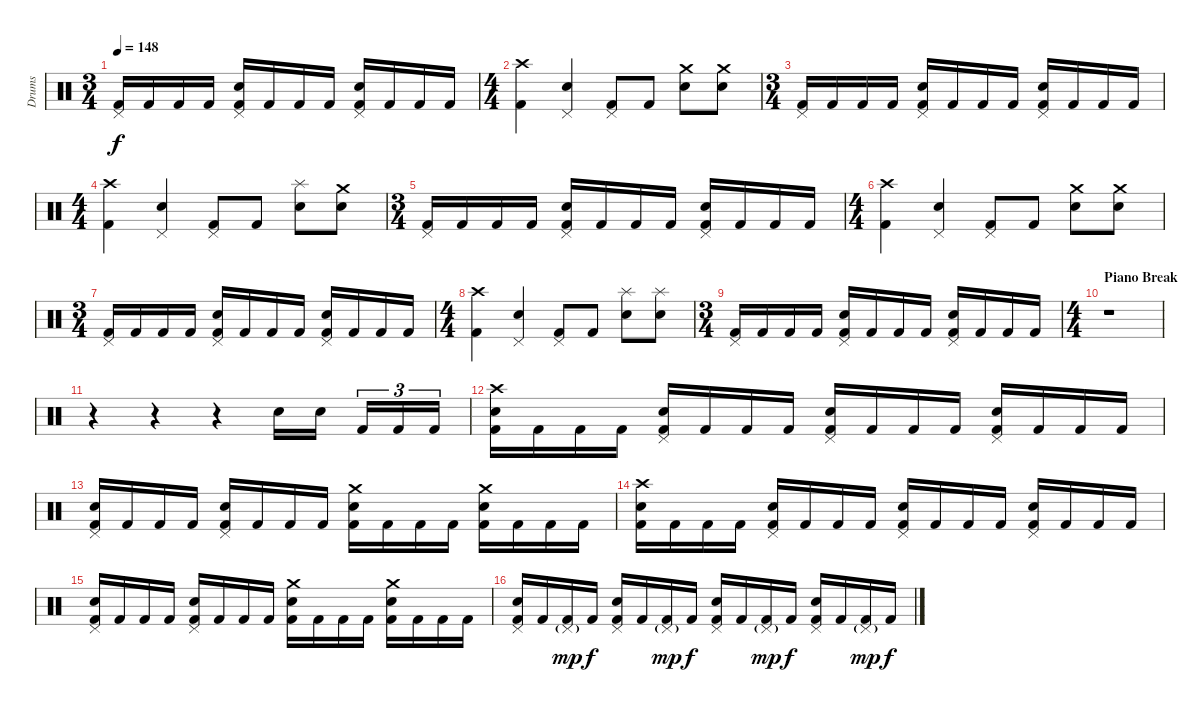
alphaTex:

\track ("Drums" "Drums") {instrument percussion}
\staff {score}
\articulation defaults
\ts (3 4)
\tempo 148
\clef neutral
\ks c
("Pedal Hi-Hat (hit)" "Kick (hit) 2").16{dy f} "Kick (hit) 2".16 "Kick (hit) 2".16 "Kick (hit) 2".16 ("Pedal Hi-Hat (hit)" "Snare (hit) 2" "Kick (hit) 2").16 "Kick (hit) 2".16 "Kick (hit) 2".16 "Kick (hit) 2".16 ("Pedal Hi-Hat (hit)" "Snare (hit) 2" "Kick (hit) 2").16 "Kick (hit) 2".16 "Kick (hit) 2".16 "Kick (hit) 2".16 |
\ts (4 4)
("Crash high (hit)" "Kick (hit) 2").4 ("Pedal Hi-Hat (hit)" "Snare (hit) 2").4 ("Pedal Hi-Hat (hit)" "Kick (hit) 2").8 "Kick (hit) 2".8 ("Crash medium (hit)" "Snare (hit) 2").8 ("Crash medium (hit)" "Snare (hit) 2").8 |
\ts (3 4)
("Pedal Hi-Hat (hit)" "Kick (hit) 2").16 "Kick (hit) 2".16 "Kick (hit) 2".16 "Kick (hit) 2".16 ("Pedal Hi-Hat (hit)" "Snare (hit) 2" "Kick (hit) 2").16 "Kick (hit) 2".16 "Kick (hit) 2".16 "Kick (hit) 2".16 ("Pedal Hi-Hat (hit)" "Snare (hit) 2" "Kick (hit) 2").16 "Kick (hit) 2".16 "Kick (hit) 2".16 "Kick (hit) 2".16 |
\ts (4 4)
("Crash high (hit)" "Kick (hit) 2").4 ("Pedal Hi-Hat (hit)" "Snare (hit) 2").4 ("Pedal Hi-Hat (hit)" "Kick (hit) 2").8 "Kick (hit) 2".8 ("Splash (hit)" "Snare (hit) 2").8 ("Crash medium (hit)" "Snare (hit) 2").8 |
\ts (3 4)
("Pedal Hi-Hat (hit)" "Kick (hit) 2").16 "Kick (hit) 2".16 "Kick (hit) 2".16 "Kick (hit) 2".16 ("Pedal Hi-Hat (hit)" "Snare (hit) 2" "Kick (hit) 2").16 "Kick (hit) 2".16 "Kick (hit) 2".16 "Kick (hit) 2".16 ("Pedal Hi-Hat (hit)" "Snare (hit) 2" "Kick (hit) 2").16 "Kick (hit) 2".16 "Kick (hit) 2".16 "Kick (hit) 2".16 |
\ts (4 4)
("Crash high (hit)" "Kick (hit) 2").4 ("Pedal Hi-Hat (hit)" "Snare (hit) 2").4 ("Pedal Hi-Hat (hit)" "Kick (hit) 2").8 "Kick (hit) 2".8 ("Crash medium (hit)" "Snare (hit) 2").8 ("Crash medium (hit)" "Snare (hit) 2").8 |
\ts (3 4)
("Pedal Hi-Hat (hit)" "Kick (hit) 2").16 "Kick (hit) 2".16 "Kick (hit) 2".16 "Kick (hit) 2".16 ("Pedal Hi-Hat (hit)" "Snare (hit) 2" "Kick (hit) 2").16 "Kick (hit) 2".16 "Kick (hit) 2".16 "Kick (hit) 2".16 ("Pedal Hi-Hat (hit)" "Snare (hit) 2" "Kick (hit) 2").16 "Kick (hit) 2".16 "Kick (hit) 2".16 "Kick (hit) 2".16 |
\ts (4 4)
("Crash high (hit)" "Kick (hit) 2").4 ("Pedal Hi-Hat (hit)" "Snare (hit) 2").4 ("Pedal Hi-Hat (hit)" "Kick (hit) 2").8 "Kick (hit) 2".8 ("Splash (hit)" "Snare (hit) 2").8 ("Splash (hit)" "Snare (hit) 2").8 |
\ts (3 4)
("Pedal Hi-Hat (hit)" "Kick (hit) 2").16 "Kick (hit) 2".16 "Kick (hit) 2".16 "Kick (hit) 2".16 ("Pedal Hi-Hat (hit)" "Snare (hit) 2" "Kick (hit) 2").16 "Kick (hit) 2".16 "Kick (hit) 2".16 "Kick (hit) 2".16 ("Pedal Hi-Hat (hit)" "Snare (hit) 2" "Kick (hit) 2").16 "Kick (hit) 2".16 "Kick (hit) 2".16 "Kick (hit) 2".16 |
\ts (4 4)
\section ("" "Piano Break")
r.1 |
r.4 r.4 r.4 "Snare (hit) 2".16 "Snare (hit) 2".16 "Kick (hit) 2".16{tu (3 2)} "Kick (hit) 2".16{tu (3 2)} "Kick (hit) 2".16{tu (3 2)} |
("Crash high (hit)" "Snare (hit) 2" "Kick (hit) 2").16 "Kick (hit) 2".16 "Kick (hit) 2".16 "Kick (hit) 2".16 ("Pedal Hi-Hat (hit)" "Snare (hit) 2" "Kick (hit) 2").16 "Kick (hit) 2".16 "Kick (hit) 2".16 "Kick (hit) 2".16 ("Pedal Hi-Hat (hit)" "Snare (hit) 2" "Kick (hit) 2").16 "Kick (hit) 2".16 "Kick (hit) 2".16 "Kick (hit) 2".16 ("Pedal Hi-Hat (hit)" "Snare (hit) 2" "Kick (hit) 2").16 "Kick (hit) 2".16 "Kick (hit) 2".16 "Kick (hit) 2".16 |
("Pedal Hi-Hat (hit)" "Snare (hit) 2" "Kick (hit) 2").16 "Kick (hit) 2".16 "Kick (hit) 2".16 "Kick (hit) 2".16 ("Pedal Hi-Hat (hit)" "Snare (hit) 2" "Kick (hit) 2").16 "Kick (hit) 2".16 "Kick (hit) 2".16 "Kick (hit) 2".16 ("Crash medium (hit)" "Snare (hit) 2" "Kick (hit) 2").16 "Kick (hit) 2".16 "Kick (hit) 2".16 "Kick (hit) 2".16 ("Crash medium (hit)" "Snare (hit) 2" "Kick (hit) 2").16 "Kick (hit) 2".16 "Kick (hit) 2".16 "Kick (hit) 2".16 |
("Crash high (hit)" "Snare (hit) 2" "Kick (hit) 2").16 "Kick (hit) 2".16 "Kick (hit) 2".16 "Kick (hit) 2".16 ("Pedal Hi-Hat (hit)" "Snare (hit) 2" "Kick (hit) 2").16 "Kick (hit) 2".16 "Kick (hit) 2".16 "Kick (hit) 2".16 ("Pedal Hi-Hat (hit)" "Snare (hit) 2" "Kick (hit) 2").16 "Kick (hit) 2".16 "Kick (hit) 2".16 "Kick (hit) 2".16 ("Pedal Hi-Hat (hit)" "Snare (hit) 2" "Kick (hit) 2").16 "Kick (hit) 2".16 "Kick (hit) 2".16 "Kick (hit) 2".16 |
("Pedal Hi-Hat (hit)" "Snare (hit) 2" "Kick (hit) 2").16 "Kick (hit) 2".16 "Kick (hit) 2".16 "Kick (hit) 2".16 ("Pedal Hi-Hat (hit)" "Snare (hit) 2" "Kick (hit) 2").16 "Kick (hit) 2".16 "Kick (hit) 2".16 "Kick (hit) 2".16 ("Crash medium (hit)" "Snare (hit) 2" "Kick (hit) 2").16 "Kick (hit) 2".16 "Kick (hit) 2".16 "Kick (hit) 2".16 ("Crash medium (hit)" "Snare (hit) 2" "Kick (hit) 2").16 "Kick (hit) 2".16 "Kick (hit) 2".16 "Kick (hit) 2".16 |
("Pedal Hi-Hat (hit)" "Snare (hit) 2" "Kick (hit) 2").16 "Kick (hit) 2".16 ("Pedal Hi-Hat (hit)"{g} "Kick (hit) 2").16{dy mp} "Kick (hit) 2".16{dy f} ("Pedal Hi-Hat (hit)" "Snare (hit) 2" "Kick (hit) 2").16 "Kick (hit) 2".16 ("Pedal Hi-Hat (hit)"{g} "Kick (hit) 2").16{dy mp} "Kick (hit) 2".16{dy f} ("Pedal Hi-Hat (hit)" "Snare (hit) 2" "Kick (hit) 2").16 "Kick (hit) 2".16 ("Pedal Hi-Hat (hit)"{g} "Kick (hit) 2").16{dy mp} "Kick (hit) 2".16{dy f} ("Pedal Hi-Hat (hit)" "Snare (hit) 2" "Kick (hit) 2").16 "Kick (hit) 2".16 ("Pedal Hi-Hat (hit)"{g} "Kick (hit) 2").16{dy mp} "Kick (hit) 2".16{dy f}
